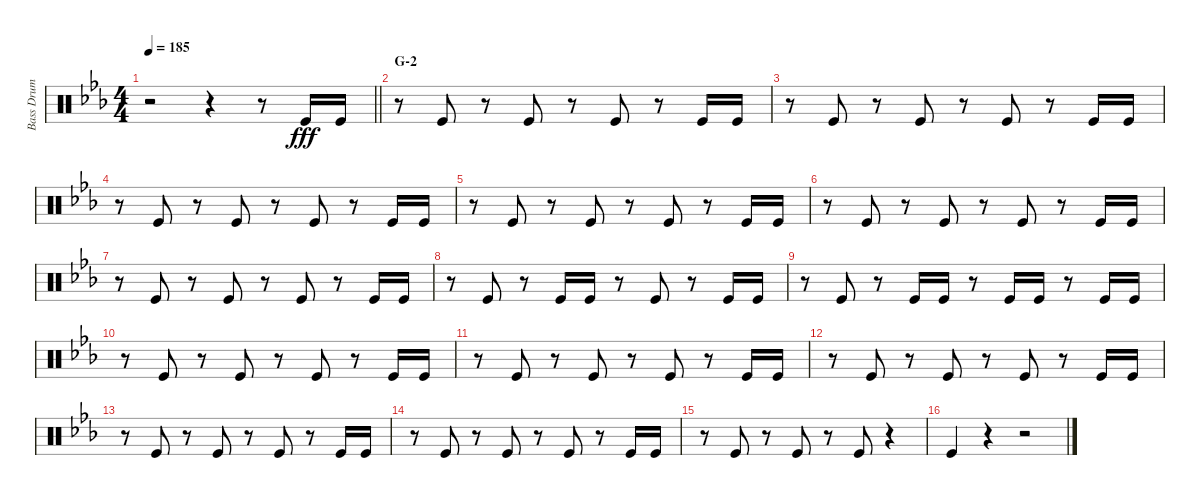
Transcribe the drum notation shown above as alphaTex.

\track ("Bass Drum" "Bass Drum") {instrument percussion}
\staff {score}
\articulation defaults
\ts (4 4)
\tempo 185
\clef neutral
\barLineRight lightlight
\ks eb
r.2{dy fff} r.4 r.8 "Kick (hit)".16 "Kick (hit)".16 |
\section ("" "G-2")
r.8 "Kick (hit)".8 r.8 "Kick (hit)".8 r.8 "Kick (hit)".8 r.8 "Kick (hit)".16 "Kick (hit)".16 |
r.8 "Kick (hit)".8 r.8 "Kick (hit)".8 r.8 "Kick (hit)".8 r.8 "Kick (hit)".16 "Kick (hit)".16 |
r.8 "Kick (hit)".8 r.8 "Kick (hit)".8 r.8 "Kick (hit)".8 r.8 "Kick (hit)".16 "Kick (hit)".16 |
r.8 "Kick (hit)".8 r.8 "Kick (hit)".8 r.8 "Kick (hit)".8 r.8 "Kick (hit)".16 "Kick (hit)".16 |
r.8 "Kick (hit)".8 r.8 "Kick (hit)".8 r.8 "Kick (hit)".8 r.8 "Kick (hit)".16 "Kick (hit)".16 |
r.8 "Kick (hit)".8 r.8 "Kick (hit)".8 r.8 "Kick (hit)".8 r.8 "Kick (hit)".16 "Kick (hit)".16 |
r.8 "Kick (hit)".8 r.8 "Kick (hit)".16 "Kick (hit)".16 r.8 "Kick (hit)".8 r.8 "Kick (hit)".16 "Kick (hit)".16 |
r.8 "Kick (hit)".8 r.8 "Kick (hit)".16 "Kick (hit)".16 r.8 "Kick (hit)".16 "Kick (hit)".16 r.8 "Kick (hit)".16 "Kick (hit)".16 |
r.8 "Kick (hit)".8 r.8 "Kick (hit)".8 r.8 "Kick (hit)".8 r.8 "Kick (hit)".16 "Kick (hit)".16 |
r.8 "Kick (hit)".8 r.8 "Kick (hit)".8 r.8 "Kick (hit)".8 r.8 "Kick (hit)".16 "Kick (hit)".16 |
r.8 "Kick (hit)".8 r.8 "Kick (hit)".8 r.8 "Kick (hit)".8 r.8 "Kick (hit)".16 "Kick (hit)".16 |
r.8 "Kick (hit)".8 r.8 "Kick (hit)".8 r.8 "Kick (hit)".8 r.8 "Kick (hit)".16 "Kick (hit)".16 |
r.8 "Kick (hit)".8 r.8 "Kick (hit)".8 r.8 "Kick (hit)".8 r.8 "Kick (hit)".16 "Kick (hit)".16 |
r.8 "Kick (hit)".8 r.8 "Kick (hit)".8 r.8 "Kick (hit)".8 r.4 |
"Kick (hit)".4 r.4 r.2
